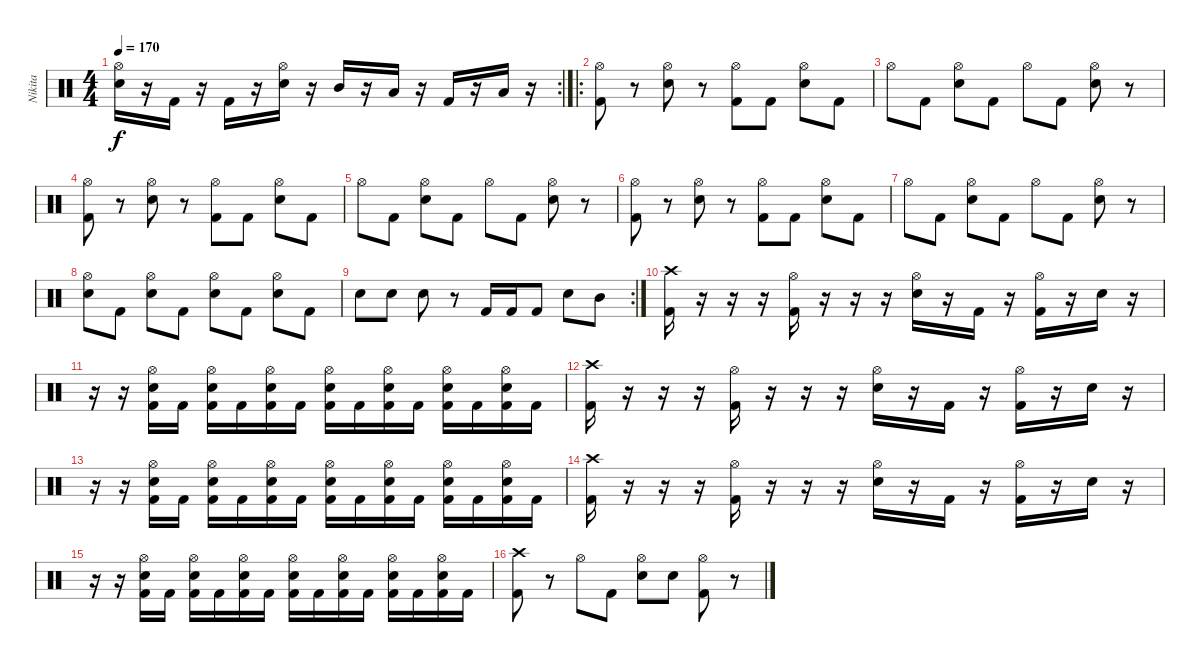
\track ("Nikita" "Nikita") {instrument percussion}
\staff {score}
\articulation defaults
\rc 2
\ts (4 4)
\tempo 170
\clef neutral
\ks c
("Hi-Hat (open)" "Electric Snare (hit)").16{dy f} r.16 "Kick (hit) 2".16 r.16 "Kick (hit) 2".16 r.16 ("Hi-Hat (open)" "Electric Snare (hit)").16 r.16 "Mid Tom (hit)".16 r.16 "Low Tom (hit)".16 r.16 "Kick (hit) 2".16 r.16 "Low Tom (hit)".16 r.16 |
\ro
("Hi-Hat (open)" "Kick (hit) 2").8 r.8 ("Hi-Hat (open)" "Electric Snare (hit)").8 r.8 ("Hi-Hat (open)" "Kick (hit) 2").8 "Kick (hit) 2".8 ("Hi-Hat (open)" "Electric Snare (hit)").8 "Kick (hit) 2".8 |
"Hi-Hat (open)".8 "Kick (hit) 2".8 ("Hi-Hat (open)" "Electric Snare (hit)").8 "Kick (hit) 2".8 "Hi-Hat (open)".8 "Kick (hit) 2".8 ("Hi-Hat (open)" "Electric Snare (hit)").8 r.8 |
("Hi-Hat (open)" "Kick (hit) 2").8 r.8 ("Hi-Hat (open)" "Electric Snare (hit)").8 r.8 ("Hi-Hat (open)" "Kick (hit) 2").8 "Kick (hit) 2".8 ("Hi-Hat (open)" "Electric Snare (hit)").8 "Kick (hit) 2".8 |
"Hi-Hat (open)".8 "Kick (hit) 2".8 ("Hi-Hat (open)" "Electric Snare (hit)").8 "Kick (hit) 2".8 "Hi-Hat (open)".8 "Kick (hit) 2".8 ("Hi-Hat (open)" "Electric Snare (hit)").8 r.8 |
("Hi-Hat (open)" "Kick (hit) 2").8 r.8 ("Hi-Hat (open)" "Electric Snare (hit)").8 r.8 ("Hi-Hat (open)" "Kick (hit) 2").8 "Kick (hit) 2".8 ("Hi-Hat (open)" "Electric Snare (hit)").8 "Kick (hit) 2".8 |
"Hi-Hat (open)".8 "Kick (hit) 2".8 ("Hi-Hat (open)" "Electric Snare (hit)").8 "Kick (hit) 2".8 "Hi-Hat (open)".8 "Kick (hit) 2".8 ("Hi-Hat (open)" "Electric Snare (hit)").8 r.8 |
("Hi-Hat (open)" "Electric Snare (hit)").8 "Kick (hit) 2".8 ("Hi-Hat (open)" "Electric Snare (hit)").8 "Kick (hit) 2".8 ("Hi-Hat (open)" "Electric Snare (hit)").8 "Kick (hit) 2".8 ("Hi-Hat (open)" "Electric Snare (hit)").8 "Kick (hit) 2".8 |
\rc 2 "Electric Snare (hit)".8 "Electric Snare (hit)".8 "Electric Snare (hit)".8
r.8 "Kick (hit) 2".16 "Kick (hit) 2".16 "Kick (hit) 2".8 "Electric Snare (hit)".8 "Mid Tom (hit)".8 |
("Crash high (hit)" "Kick (hit) 2").16 r.16 r.16 r.16 ("Hi-Hat (open)" "Kick (hit) 2").16 r.16 r.16 r.16 ("Hi-Hat (open)" "Electric Snare (hit)").16 r.16 "Kick (hit) 2".16 r.16 ("Hi-Hat (open)" "Kick (hit) 2").16 r.16 "Electric Snare (hit)".16 r.16 |
r.16 r.16 ("Hi-Hat (open)" "Electric Snare (hit)" "Kick (hit) 2").16 "Kick (hit) 2".16 ("Hi-Hat (open)" "Electric Snare (hit)" "Kick (hit) 2").16 "Kick (hit) 2".16 ("Hi-Hat (open)" "Electric Snare (hit)" "Kick (hit) 2").16 "Kick (hit) 2".16 ("Hi-Hat (open)" "Electric Snare (hit)" "Kick (hit) 2").16 "Kick (hit) 2".16 ("Hi-Hat (open)" "Electric Snare (hit)" "Kick (hit) 2").16 "Kick (hit) 2".16 ("Hi-Hat (open)" "Electric Snare (hit)" "Kick (hit) 2").16 "Kick (hit) 2".16 ("Hi-Hat (open)" "Electric Snare (hit)" "Kick (hit) 2").16 "Kick (hit) 2".16 |
("Crash high (hit)" "Kick (hit) 2").16 r.16 r.16 r.16 ("Hi-Hat (open)" "Kick (hit) 2").16 r.16 r.16 r.16 ("Hi-Hat (open)" "Electric Snare (hit)").16 r.16 "Kick (hit) 2".16 r.16 ("Hi-Hat (open)" "Kick (hit) 2").16 r.16 "Electric Snare (hit)".16 r.16 |
r.16 r.16 ("Hi-Hat (open)" "Electric Snare (hit)" "Kick (hit) 2").16 "Kick (hit) 2".16 ("Hi-Hat (open)" "Electric Snare (hit)" "Kick (hit) 2").16 "Kick (hit) 2".16 ("Hi-Hat (open)" "Electric Snare (hit)" "Kick (hit) 2").16 "Kick (hit) 2".16 ("Hi-Hat (open)" "Electric Snare (hit)" "Kick (hit) 2").16 "Kick (hit) 2".16 ("Hi-Hat (open)" "Electric Snare (hit)" "Kick (hit) 2").16 "Kick (hit) 2".16 ("Hi-Hat (open)" "Electric Snare (hit)" "Kick (hit) 2").16 "Kick (hit) 2".16 ("Hi-Hat (open)" "Electric Snare (hit)" "Kick (hit) 2").16 "Kick (hit) 2".16 |
("Crash high (hit)" "Kick (hit) 2").16 r.16 r.16 r.16 ("Hi-Hat (open)" "Kick (hit) 2").16 r.16 r.16 r.16 ("Hi-Hat (open)" "Electric Snare (hit)").16 r.16 "Kick (hit) 2".16 r.16 ("Hi-Hat (open)" "Kick (hit) 2").16 r.16 "Electric Snare (hit)".16 r.16 |
r.16 r.16 ("Hi-Hat (open)" "Electric Snare (hit)" "Kick (hit) 2").16 "Kick (hit) 2".16 ("Hi-Hat (open)" "Electric Snare (hit)" "Kick (hit) 2").16 "Kick (hit) 2".16 ("Hi-Hat (open)" "Electric Snare (hit)" "Kick (hit) 2").16 "Kick (hit) 2".16 ("Hi-Hat (open)" "Electric Snare (hit)" "Kick (hit) 2").16 "Kick (hit) 2".16 ("Hi-Hat (open)" "Electric Snare (hit)" "Kick (hit) 2").16 "Kick (hit) 2".16 ("Hi-Hat (open)" "Electric Snare (hit)" "Kick (hit) 2").16 "Kick (hit) 2".16 ("Hi-Hat (open)" "Electric Snare (hit)" "Kick (hit) 2").16 "Kick (hit) 2".16 |
("Crash high (hit)" "Kick (hit) 2").8 r.8 "Hi-Hat (open)".8 "Kick (hit) 2".8 ("Hi-Hat (open)" "Electric Snare (hit)").8 "Electric Snare (hit)".8 ("Hi-Hat (open)" "Kick (hit) 2").8 r.8
